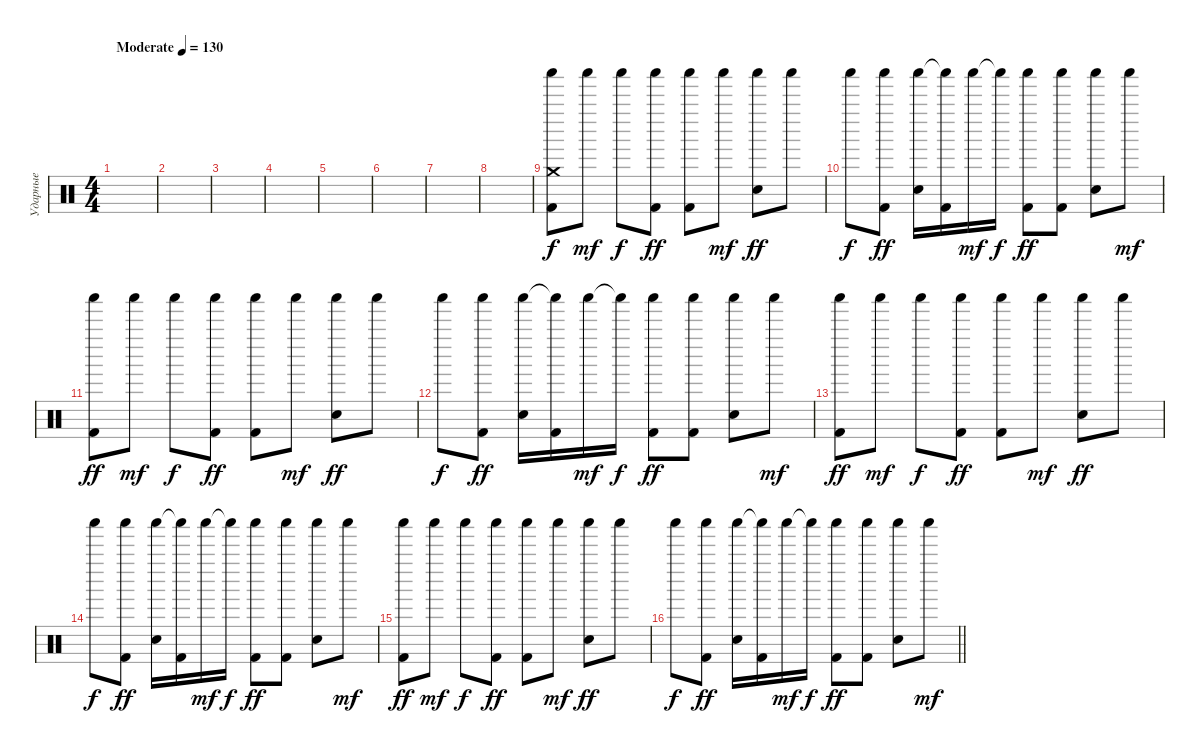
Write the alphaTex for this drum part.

\track ("Ударные" "Ударные") {instrument percussion}
\staff {score}
\articulation defaults
\ts (4 4)
\tempo (130 "Moderate")
\clef neutral
\ks c
|
|
|
|
|
|
|
|
("Shaker (hit)" "Kick (hit) 2" "Crash medium (hit)").8 "Shaker (hit)".8{dy mf} "Shaker (hit)".8{dy f} ("Shaker (hit)" "Kick (hit) 2").8{dy ff} ("Shaker (hit)" "Kick (hit) 2").8 "Shaker (hit)".8{dy mf} ("Shaker (hit)" "Snare (hit) 2").8{dy ff} "Shaker (hit)".8 |
"Shaker (hit)".8{dy f} ("Shaker (hit)" "Kick (hit) 2").8{dy ff} ("Shaker (hit)" "Snare (hit) 2").16 ("Shaker (hit)"{t} "Kick (hit) 2").16 "Shaker (hit)".16{dy mf} "Shaker (hit)"{t}.16{dy f} ("Shaker (hit)" "Kick (hit) 2").8{dy ff} ("Shaker (hit)" "Kick (hit) 2").8 ("Shaker (hit)" "Snare (hit) 2").8 "Shaker (hit)".8{dy mf} |
("Shaker (hit)" "Kick (hit) 2").8{dy ff} "Shaker (hit)".8{dy mf} "Shaker (hit)".8{dy f} ("Shaker (hit)" "Kick (hit) 2").8{dy ff} ("Shaker (hit)" "Kick (hit) 2").8 "Shaker (hit)".8{dy mf} ("Shaker (hit)" "Snare (hit) 2").8{dy ff} "Shaker (hit)".8 |
"Shaker (hit)".8{dy f} ("Shaker (hit)" "Kick (hit) 2").8{dy ff} ("Shaker (hit)" "Snare (hit) 2").16 ("Shaker (hit)"{t} "Kick (hit) 2").16 "Shaker (hit)".16{dy mf} "Shaker (hit)"{t}.16{dy f} ("Shaker (hit)" "Kick (hit) 2").8{dy ff} ("Shaker (hit)" "Kick (hit) 2").8 ("Shaker (hit)" "Snare (hit) 2").8 "Shaker (hit)".8{dy mf} |
("Shaker (hit)" "Kick (hit) 2").8{dy ff} "Shaker (hit)".8{dy mf} "Shaker (hit)".8{dy f} ("Shaker (hit)" "Kick (hit) 2").8{dy ff} ("Shaker (hit)" "Kick (hit) 2").8 "Shaker (hit)".8{dy mf} ("Shaker (hit)" "Snare (hit) 2").8{dy ff} "Shaker (hit)".8 |
"Shaker (hit)".8{dy f} ("Shaker (hit)" "Kick (hit) 2").8{dy ff} ("Shaker (hit)" "Snare (hit) 2").16 ("Shaker (hit)"{t} "Kick (hit) 2").16 "Shaker (hit)".16{dy mf} "Shaker (hit)"{t}.16{dy f} ("Shaker (hit)" "Kick (hit) 2").8{dy ff} ("Shaker (hit)" "Kick (hit) 2").8 ("Shaker (hit)" "Snare (hit) 2").8 "Shaker (hit)".8{dy mf} |
("Shaker (hit)" "Kick (hit) 2").8{dy ff} "Shaker (hit)".8{dy mf} "Shaker (hit)".8{dy f} ("Shaker (hit)" "Kick (hit) 2").8{dy ff} ("Shaker (hit)" "Kick (hit) 2").8 "Shaker (hit)".8{dy mf} ("Shaker (hit)" "Snare (hit) 2").8{dy ff} "Shaker (hit)".8 |
\barLineRight lightlight "Shaker (hit)".8{dy f}
("Shaker (hit)" "Kick (hit) 2").8{dy ff} ("Shaker (hit)" "Snare (hit) 2").16 ("Shaker (hit)"{t} "Kick (hit) 2").16 "Shaker (hit)".16{dy mf} "Shaker (hit)"{t}.16{dy f} ("Shaker (hit)" "Kick (hit) 2").8{dy ff} ("Shaker (hit)" "Kick (hit) 2").8 ("Shaker (hit)" "Snare (hit) 2").8 "Shaker (hit)".8{dy mf}
